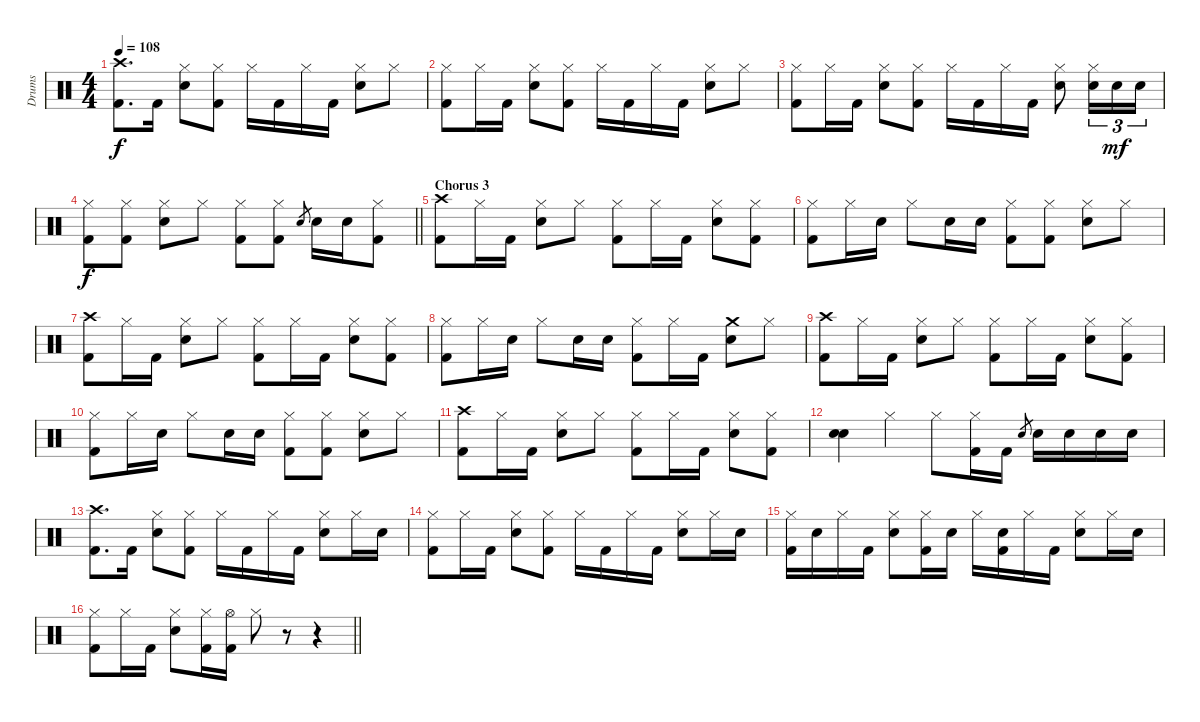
\track ("Drums" "Drums") {instrument percussion}
\staff {score}
\articulation defaults
\ts (4 4)
\tempo 108
\clef neutral
\ks c
("Crash high (hit)" "Kick (hit) 2").8{d dy f} "Kick (hit) 2".16 ("Hi-Hat (closed)" "Electric Snare (hit)").8 ("Hi-Hat (closed)" "Kick (hit) 2").8 "Hi-Hat (closed)".16 "Kick (hit) 2".16 "Hi-Hat (closed)".16 "Kick (hit) 2".16 ("Hi-Hat (closed)" "Electric Snare (hit)").8 "Hi-Hat (closed)".8 |
("Hi-Hat (closed)" "Kick (hit) 2").8 "Hi-Hat (closed)".16 "Kick (hit) 2".16 ("Hi-Hat (closed)" "Electric Snare (hit)").8 ("Hi-Hat (closed)" "Kick (hit) 2").8 "Hi-Hat (closed)".16 "Kick (hit) 2".16 "Hi-Hat (closed)".16 "Kick (hit) 2".16 ("Hi-Hat (closed)" "Electric Snare (hit)").8 "Hi-Hat (closed)".8 |
("Hi-Hat (closed)" "Kick (hit) 2").8 "Hi-Hat (closed)".16 "Kick (hit) 2".16 ("Hi-Hat (closed)" "Electric Snare (hit)").8 ("Hi-Hat (closed)" "Kick (hit) 2").8 "Hi-Hat (closed)".16 "Kick (hit) 2".16 "Hi-Hat (closed)".16 "Kick (hit) 2".16 ("Hi-Hat (closed)" "Electric Snare (hit)").8 ("Hi-Hat (closed)" "Electric Snare (hit)").16{tu (3 2)} "Electric Snare (hit)".16{tu (3 2) dy mf} "Electric Snare (hit)".16{tu (3 2)} |
\barLineRight lightlight
("Hi-Hat (closed)" "Kick (hit) 2").8{dy f} ("Hi-Hat (closed)" "Kick (hit) 2").8 ("Hi-Hat (closed)" "Electric Snare (hit)").8 "Hi-Hat (closed)".8 ("Hi-Hat (closed)" "Kick (hit) 2").8 ("Hi-Hat (closed)" "Kick (hit) 2").8 "Electric Snare (hit)".8{gr} "Electric Snare (hit)".16 "Electric Snare (hit)".16 ("Hi-Hat (closed)" "Kick (hit) 2").8 |
\section ("" "Chorus 3")
("Crash high (hit)" "Kick (hit) 2").8 "Hi-Hat (closed)".16 "Kick (hit) 2".16 ("Hi-Hat (closed)" "Electric Snare (hit)").8 "Hi-Hat (closed)".8 ("Hi-Hat (closed)" "Kick (hit) 2").8 "Hi-Hat (closed)".16 "Kick (hit) 2".16 ("Hi-Hat (closed)" "Electric Snare (hit)").8 ("Hi-Hat (closed)" "Kick (hit) 2").8 |
("Hi-Hat (closed)" "Kick (hit) 2").8 "Hi-Hat (closed)".16 "Electric Snare (hit)".16 "Hi-Hat (closed)".8 "Electric Snare (hit)".16 "Electric Snare (hit)".16 ("Hi-Hat (closed)" "Kick (hit) 2").8 ("Hi-Hat (closed)" "Kick (hit) 2").8 ("Hi-Hat (closed)" "Electric Snare (hit)").8 "Hi-Hat (closed)".8 |
("Crash high (hit)" "Kick (hit) 2").8 "Hi-Hat (closed)".16 "Kick (hit) 2".16 ("Hi-Hat (closed)" "Electric Snare (hit)").8 "Hi-Hat (closed)".8 ("Hi-Hat (closed)" "Kick (hit) 2").8 "Hi-Hat (closed)".16 "Kick (hit) 2".16 ("Hi-Hat (closed)" "Electric Snare (hit)").8 ("Hi-Hat (closed)" "Kick (hit) 2").8 |
("Hi-Hat (closed)" "Kick (hit) 2").8 "Hi-Hat (closed)".16 "Electric Snare (hit)".16 "Hi-Hat (closed)".8 "Electric Snare (hit)".16 "Electric Snare (hit)".16 ("Hi-Hat (closed)" "Kick (hit) 2").8 "Hi-Hat (closed)".16 "Kick (hit) 2".16 ("Crash medium (hit)" "Electric Snare (hit)").8 "Hi-Hat (closed)".8 |
("Crash high (hit)" "Kick (hit) 2").8 "Hi-Hat (closed)".16 "Kick (hit) 2".16 ("Hi-Hat (closed)" "Electric Snare (hit)").8 "Hi-Hat (closed)".8 ("Hi-Hat (closed)" "Kick (hit) 2").8 "Hi-Hat (closed)".16 "Kick (hit) 2".16 ("Hi-Hat (closed)" "Electric Snare (hit)").8 ("Hi-Hat (closed)" "Kick (hit) 2").8 |
("Hi-Hat (closed)" "Kick (hit) 2").8 "Hi-Hat (closed)".16 "Electric Snare (hit)".16 "Hi-Hat (closed)".8 "Electric Snare (hit)".16 "Electric Snare (hit)".16 ("Hi-Hat (closed)" "Kick (hit) 2").8 ("Hi-Hat (closed)" "Kick (hit) 2").8 ("Hi-Hat (closed)" "Electric Snare (hit)").8 "Hi-Hat (closed)".8 |
("Crash high (hit)" "Kick (hit) 2").8 "Hi-Hat (closed)".16 "Kick (hit) 2".16 ("Hi-Hat (closed)" "Electric Snare (hit)").8 "Hi-Hat (closed)".8 ("Hi-Hat (closed)" "Kick (hit) 2").8 "Hi-Hat (closed)".16 "Kick (hit) 2".16 ("Hi-Hat (closed)" "Electric Snare (hit)").8 ("Hi-Hat (closed)" "Kick (hit) 2").8 |
("Electric Snare (hit)" "Electric Snare (hit)").4 "Hi-Hat (closed)".4 "Hi-Hat (closed)".8 ("Hi-Hat (closed)" "Kick (hit) 2").16 "Kick (hit) 2".16 "Electric Snare (hit)".8{gr} "Electric Snare (hit)".16 "Electric Snare (hit)".16 "Electric Snare (hit)".16 "Electric Snare (hit)".16 |
("Crash high (hit)" "Kick (hit) 2").8{d} "Kick (hit) 2".16 ("Hi-Hat (closed)" "Electric Snare (hit)").8 ("Hi-Hat (closed)" "Kick (hit) 2").8 "Hi-Hat (closed)".16 "Kick (hit) 2".16 "Hi-Hat (closed)".16 "Kick (hit) 2".16 ("Hi-Hat (closed)" "Electric Snare (hit)").8 "Hi-Hat (closed)".16 "Electric Snare (hit)".16 |
("Hi-Hat (closed)" "Kick (hit) 2").8 "Hi-Hat (closed)".16 "Kick (hit) 2".16 ("Hi-Hat (closed)" "Electric Snare (hit)").8 ("Hi-Hat (closed)" "Kick (hit) 2").8 "Hi-Hat (closed)".16 "Kick (hit) 2".16 "Hi-Hat (closed)".16 "Kick (hit) 2".16 ("Hi-Hat (closed)" "Electric Snare (hit)").8 "Hi-Hat (closed)".16 "Electric Snare (hit)".16 |
("Hi-Hat (closed)" "Kick (hit) 2").16 "Electric Snare (hit)".16 "Hi-Hat (closed)".16 "Kick (hit) 2".16 ("Hi-Hat (closed)" "Electric Snare (hit)").8 ("Hi-Hat (closed)" "Kick (hit) 2").16 "Electric Snare (hit)".16 "Hi-Hat (closed)".16 ("Electric Snare (hit)" "Kick (hit) 2").16 "Hi-Hat (closed)".16 "Kick (hit) 2".16 ("Hi-Hat (closed)" "Electric Snare (hit)").8 "Hi-Hat (closed)".16 "Electric Snare (hit)".16 |
\barLineRight lightlight
("Hi-Hat (closed)" "Kick (hit) 2").8 "Hi-Hat (closed)".16 "Kick (hit) 2".16 ("Hi-Hat (closed)" "Electric Snare (hit)").8 ("Hi-Hat (closed)" "Kick (hit) 2").16 ("Hi-Hat (open)" "Kick (hit) 2").16 "Hi-Hat (closed)".8 r.8 r.4
